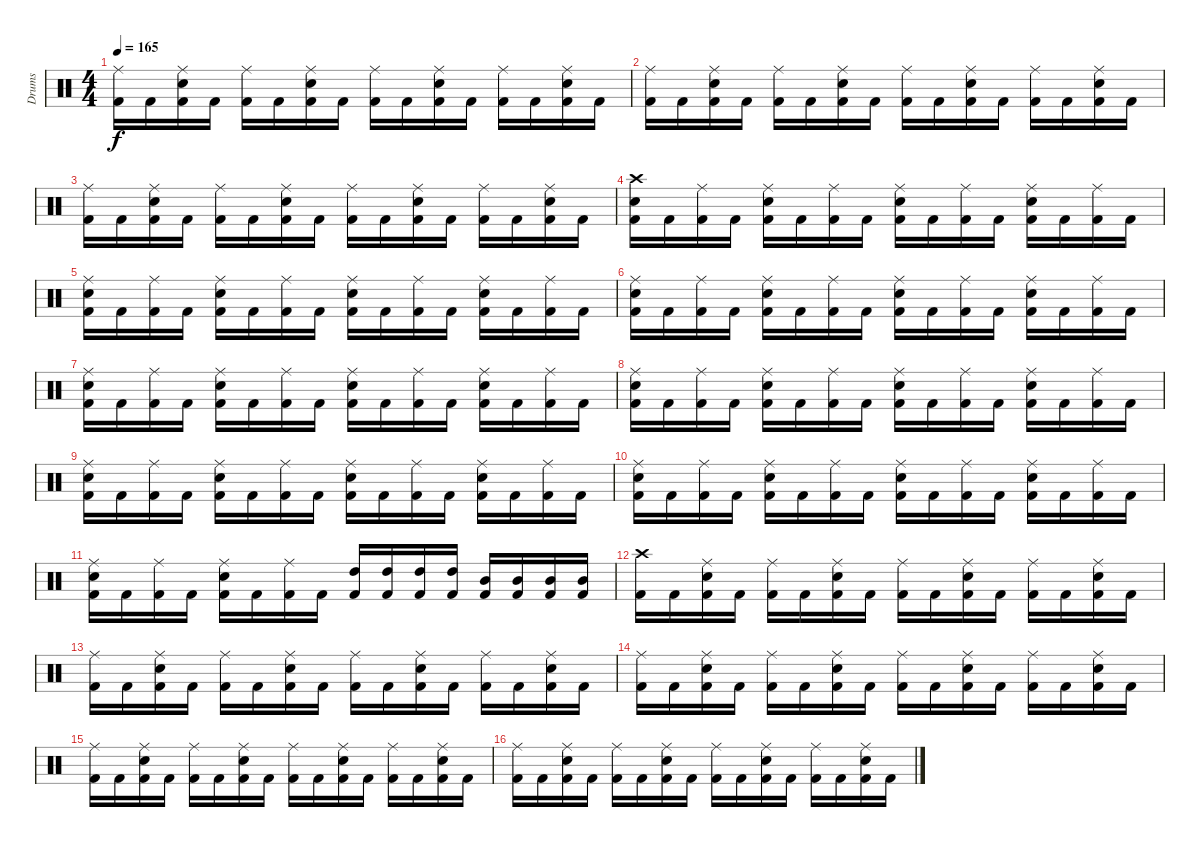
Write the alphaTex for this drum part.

\track ("Drums" "Drums") {instrument percussion}
\staff {score}
\articulation defaults
\ts (4 4)
\tempo 165
\clef neutral
\ks c
("Ride (middle)" "Kick (hit) 2").16{dy f} "Kick (hit) 2".16 ("Ride (middle)" "Electric Snare (hit)" "Kick (hit) 2").16 "Kick (hit) 2".16 ("Ride (middle)" "Kick (hit) 2").16 "Kick (hit) 2".16 ("Ride (middle)" "Electric Snare (hit)" "Kick (hit) 2").16 "Kick (hit) 2".16 ("Ride (middle)" "Kick (hit) 2").16 "Kick (hit) 2".16 ("Ride (middle)" "Electric Snare (hit)" "Kick (hit) 2").16 "Kick (hit) 2".16 ("Ride (middle)" "Kick (hit) 2").16 "Kick (hit) 2".16 ("Ride (middle)" "Electric Snare (hit)" "Kick (hit) 2").16 "Kick (hit) 2".16 |
("Ride (middle)" "Kick (hit) 2").16 "Kick (hit) 2".16 ("Ride (middle)" "Electric Snare (hit)" "Kick (hit) 2").16 "Kick (hit) 2".16 ("Ride (middle)" "Kick (hit) 2").16 "Kick (hit) 2".16 ("Ride (middle)" "Electric Snare (hit)" "Kick (hit) 2").16 "Kick (hit) 2".16 ("Ride (middle)" "Kick (hit) 2").16 "Kick (hit) 2".16 ("Ride (middle)" "Electric Snare (hit)" "Kick (hit) 2").16 "Kick (hit) 2".16 ("Ride (middle)" "Kick (hit) 2").16 "Kick (hit) 2".16 ("Ride (middle)" "Electric Snare (hit)" "Kick (hit) 2").16 "Kick (hit) 2".16 |
("Ride (middle)" "Kick (hit) 2").16 "Kick (hit) 2".16 ("Ride (middle)" "Electric Snare (hit)" "Kick (hit) 2").16 "Kick (hit) 2".16 ("Ride (middle)" "Kick (hit) 2").16 "Kick (hit) 2".16 ("Ride (middle)" "Electric Snare (hit)" "Kick (hit) 2").16 "Kick (hit) 2".16 ("Ride (middle)" "Kick (hit) 2").16 "Kick (hit) 2".16 ("Ride (middle)" "Electric Snare (hit)" "Kick (hit) 2").16 "Kick (hit) 2".16 ("Ride (middle)" "Kick (hit) 2").16 "Kick (hit) 2".16 ("Ride (middle)" "Electric Snare (hit)" "Kick (hit) 2").16 "Kick (hit) 2".16 |
("Crash high (hit)" "Electric Snare (hit)" "Kick (hit) 2").16 "Kick (hit) 2".16 ("Ride (middle)" "Kick (hit) 2").16 "Kick (hit) 2".16 ("Ride (middle)" "Electric Snare (hit)" "Kick (hit) 2").16 "Kick (hit) 2".16 ("Ride (middle)" "Kick (hit) 2").16 "Kick (hit) 2".16 ("Ride (middle)" "Electric Snare (hit)" "Kick (hit) 2").16 "Kick (hit) 2".16 ("Ride (middle)" "Kick (hit) 2").16 "Kick (hit) 2".16 ("Ride (middle)" "Electric Snare (hit)" "Kick (hit) 2").16 "Kick (hit) 2".16 ("Ride (middle)" "Kick (hit) 2").16 "Kick (hit) 2".16 |
("Ride (middle)" "Electric Snare (hit)" "Kick (hit) 2").16 "Kick (hit) 2".16 ("Ride (middle)" "Kick (hit) 2").16 "Kick (hit) 2".16 ("Ride (middle)" "Electric Snare (hit)" "Kick (hit) 2").16 "Kick (hit) 2".16 ("Ride (middle)" "Kick (hit) 2").16 "Kick (hit) 2".16 ("Ride (middle)" "Electric Snare (hit)" "Kick (hit) 2").16 "Kick (hit) 2".16 ("Ride (middle)" "Kick (hit) 2").16 "Kick (hit) 2".16 ("Ride (middle)" "Electric Snare (hit)" "Kick (hit) 2").16 "Kick (hit) 2".16 ("Ride (middle)" "Kick (hit) 2").16 "Kick (hit) 2".16 |
("Ride (middle)" "Electric Snare (hit)" "Kick (hit) 2").16 "Kick (hit) 2".16 ("Ride (middle)" "Kick (hit) 2").16 "Kick (hit) 2".16 ("Ride (middle)" "Electric Snare (hit)" "Kick (hit) 2").16 "Kick (hit) 2".16 ("Ride (middle)" "Kick (hit) 2").16 "Kick (hit) 2".16 ("Ride (middle)" "Electric Snare (hit)" "Kick (hit) 2").16 "Kick (hit) 2".16 ("Ride (middle)" "Kick (hit) 2").16 "Kick (hit) 2".16 ("Ride (middle)" "Electric Snare (hit)" "Kick (hit) 2").16 "Kick (hit) 2".16 ("Ride (middle)" "Kick (hit) 2").16 "Kick (hit) 2".16 |
("Ride (middle)" "Electric Snare (hit)" "Kick (hit) 2").16 "Kick (hit) 2".16 ("Ride (middle)" "Kick (hit) 2").16 "Kick (hit) 2".16 ("Ride (middle)" "Electric Snare (hit)" "Kick (hit) 2").16 "Kick (hit) 2".16 ("Ride (middle)" "Kick (hit) 2").16 "Kick (hit) 2".16 ("Ride (middle)" "Electric Snare (hit)" "Kick (hit) 2").16 "Kick (hit) 2".16 ("Ride (middle)" "Kick (hit) 2").16 "Kick (hit) 2".16 ("Ride (middle)" "Electric Snare (hit)" "Kick (hit) 2").16 "Kick (hit) 2".16 ("Ride (middle)" "Kick (hit) 2").16 "Kick (hit) 2".16 |
("Ride (middle)" "Electric Snare (hit)" "Kick (hit) 2").16 "Kick (hit) 2".16 ("Ride (middle)" "Kick (hit) 2").16 "Kick (hit) 2".16 ("Ride (middle)" "Electric Snare (hit)" "Kick (hit) 2").16 "Kick (hit) 2".16 ("Ride (middle)" "Kick (hit) 2").16 "Kick (hit) 2".16 ("Ride (middle)" "Electric Snare (hit)" "Kick (hit) 2").16 "Kick (hit) 2".16 ("Ride (middle)" "Kick (hit) 2").16 "Kick (hit) 2".16 ("Ride (middle)" "Electric Snare (hit)" "Kick (hit) 2").16 "Kick (hit) 2".16 ("Ride (middle)" "Kick (hit) 2").16 "Kick (hit) 2".16 |
("Ride (middle)" "Electric Snare (hit)" "Kick (hit) 2").16 "Kick (hit) 2".16 ("Ride (middle)" "Kick (hit) 2").16 "Kick (hit) 2".16 ("Ride (middle)" "Electric Snare (hit)" "Kick (hit) 2").16 "Kick (hit) 2".16 ("Ride (middle)" "Kick (hit) 2").16 "Kick (hit) 2".16 ("Ride (middle)" "Electric Snare (hit)" "Kick (hit) 2").16 "Kick (hit) 2".16 ("Ride (middle)" "Kick (hit) 2").16 "Kick (hit) 2".16 ("Ride (middle)" "Electric Snare (hit)" "Kick (hit) 2").16 "Kick (hit) 2".16 ("Ride (middle)" "Kick (hit) 2").16 "Kick (hit) 2".16 |
("Ride (middle)" "Electric Snare (hit)" "Kick (hit) 2").16 "Kick (hit) 2".16 ("Ride (middle)" "Kick (hit) 2").16 "Kick (hit) 2".16 ("Ride (middle)" "Electric Snare (hit)" "Kick (hit) 2").16 "Kick (hit) 2".16 ("Ride (middle)" "Kick (hit) 2").16 "Kick (hit) 2".16 ("Ride (middle)" "Electric Snare (hit)" "Kick (hit) 2").16 "Kick (hit) 2".16 ("Ride (middle)" "Kick (hit) 2").16 "Kick (hit) 2".16 ("Ride (middle)" "Electric Snare (hit)" "Kick (hit) 2").16 "Kick (hit) 2".16 ("Ride (middle)" "Kick (hit) 2").16 "Kick (hit) 2".16 |
("Ride (middle)" "Electric Snare (hit)" "Kick (hit) 2").16 "Kick (hit) 2".16 ("Ride (middle)" "Kick (hit) 2").16 "Kick (hit) 2".16 ("Ride (middle)" "Electric Snare (hit)" "Kick (hit) 2").16 "Kick (hit) 2".16 ("Ride (middle)" "Kick (hit) 2").16 "Kick (hit) 2".16 ("High Tom (hit)" "Kick (hit) 2").16 ("High Tom (hit)" "Kick (hit) 2").16 ("High Tom (hit)" "Kick (hit) 2").16 ("High Tom (hit)" "Kick (hit) 2").16 ("Mid Tom (hit)" "Kick (hit) 2").16 ("Mid Tom (hit)" "Kick (hit) 2").16 ("Mid Tom (hit)" "Kick (hit) 2").16 ("Mid Tom (hit)" "Kick (hit) 2").16 |
("Crash high (hit)" "Kick (hit) 2").16 "Kick (hit) 2".16 ("Ride (middle)" "Electric Snare (hit)" "Kick (hit) 2").16 "Kick (hit) 2".16 ("Ride (middle)" "Kick (hit) 2").16 "Kick (hit) 2".16 ("Ride (middle)" "Electric Snare (hit)" "Kick (hit) 2").16 "Kick (hit) 2".16 ("Ride (middle)" "Kick (hit) 2").16 "Kick (hit) 2".16 ("Ride (middle)" "Electric Snare (hit)" "Kick (hit) 2").16 "Kick (hit) 2".16 ("Ride (middle)" "Kick (hit) 2").16 "Kick (hit) 2".16 ("Ride (middle)" "Electric Snare (hit)" "Kick (hit) 2").16 "Kick (hit) 2".16 |
("Ride (middle)" "Kick (hit) 2").16 "Kick (hit) 2".16 ("Ride (middle)" "Electric Snare (hit)" "Kick (hit) 2").16 "Kick (hit) 2".16 ("Ride (middle)" "Kick (hit) 2").16 "Kick (hit) 2".16 ("Ride (middle)" "Electric Snare (hit)" "Kick (hit) 2").16 "Kick (hit) 2".16 ("Ride (middle)" "Kick (hit) 2").16 "Kick (hit) 2".16 ("Ride (middle)" "Electric Snare (hit)" "Kick (hit) 2").16 "Kick (hit) 2".16 ("Ride (middle)" "Kick (hit) 2").16 "Kick (hit) 2".16 ("Ride (middle)" "Electric Snare (hit)" "Kick (hit) 2").16 "Kick (hit) 2".16 |
("Ride (middle)" "Kick (hit) 2").16 "Kick (hit) 2".16 ("Ride (middle)" "Electric Snare (hit)" "Kick (hit) 2").16 "Kick (hit) 2".16 ("Ride (middle)" "Kick (hit) 2").16 "Kick (hit) 2".16 ("Ride (middle)" "Electric Snare (hit)" "Kick (hit) 2").16 "Kick (hit) 2".16 ("Ride (middle)" "Kick (hit) 2").16 "Kick (hit) 2".16 ("Ride (middle)" "Electric Snare (hit)" "Kick (hit) 2").16 "Kick (hit) 2".16 ("Ride (middle)" "Kick (hit) 2").16 "Kick (hit) 2".16 ("Ride (middle)" "Electric Snare (hit)" "Kick (hit) 2").16 "Kick (hit) 2".16 |
("Ride (middle)" "Kick (hit) 2").16 "Kick (hit) 2".16 ("Ride (middle)" "Electric Snare (hit)" "Kick (hit) 2").16 "Kick (hit) 2".16 ("Ride (middle)" "Kick (hit) 2").16 "Kick (hit) 2".16 ("Ride (middle)" "Electric Snare (hit)" "Kick (hit) 2").16 "Kick (hit) 2".16 ("Ride (middle)" "Kick (hit) 2").16 "Kick (hit) 2".16 ("Ride (middle)" "Electric Snare (hit)" "Kick (hit) 2").16 "Kick (hit) 2".16 ("Ride (middle)" "Kick (hit) 2").16 "Kick (hit) 2".16 ("Ride (middle)" "Electric Snare (hit)" "Kick (hit) 2").16 "Kick (hit) 2".16 |
("Ride (middle)" "Kick (hit) 2").16 "Kick (hit) 2".16 ("Ride (middle)" "Electric Snare (hit)" "Kick (hit) 2").16 "Kick (hit) 2".16 ("Ride (middle)" "Kick (hit) 2").16 "Kick (hit) 2".16 ("Ride (middle)" "Electric Snare (hit)" "Kick (hit) 2").16 "Kick (hit) 2".16 ("Ride (middle)" "Kick (hit) 2").16 "Kick (hit) 2".16 ("Ride (middle)" "Electric Snare (hit)" "Kick (hit) 2").16 "Kick (hit) 2".16 ("Ride (middle)" "Kick (hit) 2").16 "Kick (hit) 2".16 ("Ride (middle)" "Electric Snare (hit)" "Kick (hit) 2").16 "Kick (hit) 2".16
